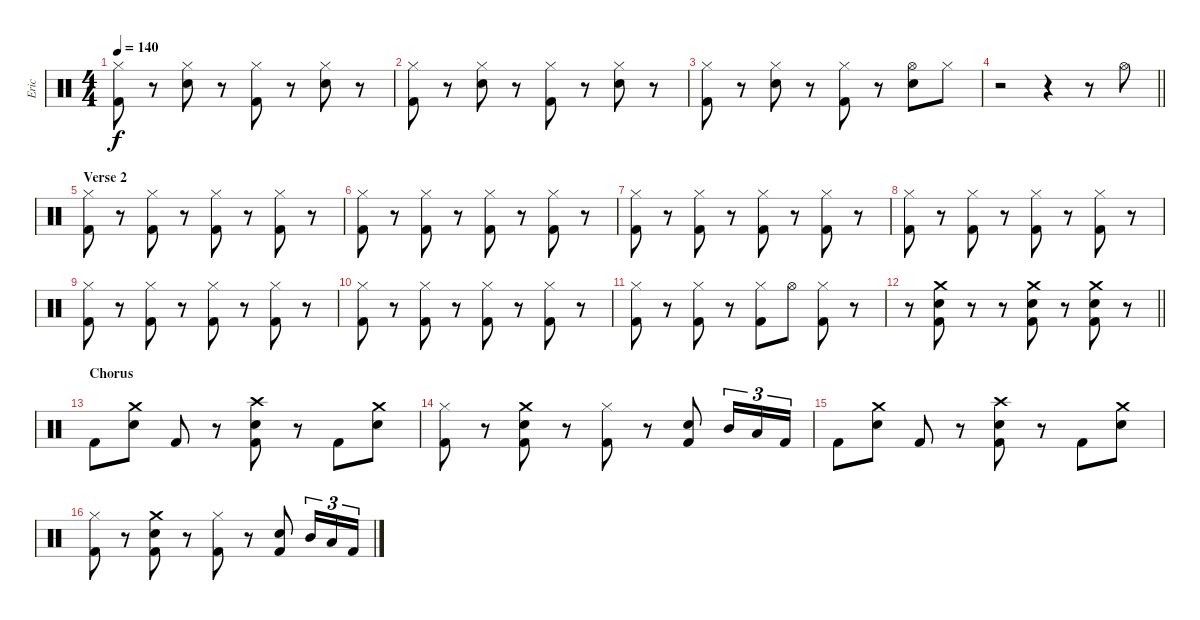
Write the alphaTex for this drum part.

\track ("Eric" "Eric") {instrument percussion}
\staff {score}
\articulation defaults
\ts (4 4)
\tempo 140
\clef neutral
\ks c
("Hi-Hat (closed)" "Kick (hit) 2").8{dy f} r.8 ("Hi-Hat (closed)" "Electric Snare (hit)").8 r.8 ("Hi-Hat (closed)" "Kick (hit) 2").8 r.8 ("Hi-Hat (closed)" "Electric Snare (hit)").8 r.8 |
("Hi-Hat (closed)" "Kick (hit) 2").8 r.8 ("Hi-Hat (closed)" "Electric Snare (hit)").8 r.8 ("Hi-Hat (closed)" "Kick (hit) 2").8 r.8 ("Hi-Hat (closed)" "Electric Snare (hit)").8 r.8 |
("Hi-Hat (closed)" "Kick (hit) 2").8 r.8 ("Hi-Hat (closed)" "Electric Snare (hit)").8 r.8 ("Hi-Hat (closed)" "Kick (hit) 2").8 r.8 ("Hi-Hat (open)" "Electric Snare (hit)").8 "Hi-Hat (closed)".8 |
\barLineRight lightlight
r.2 r.4 r.8 "Hi-Hat (open)".8 |
\section ("" "Verse 2")
("Hi-Hat (closed)" "Kick (hit) 2").8 r.8 ("Hi-Hat (closed)" "Kick (hit) 2").8 r.8 ("Hi-Hat (closed)" "Kick (hit) 2").8 r.8 ("Hi-Hat (closed)" "Kick (hit) 2").8 r.8 |
("Hi-Hat (closed)" "Kick (hit) 2").8 r.8 ("Hi-Hat (closed)" "Kick (hit) 2").8 r.8 ("Hi-Hat (closed)" "Kick (hit) 2").8 r.8 ("Hi-Hat (closed)" "Kick (hit) 2").8 r.8 |
("Hi-Hat (closed)" "Kick (hit) 2").8 r.8 ("Hi-Hat (closed)" "Kick (hit) 2").8 r.8 ("Hi-Hat (closed)" "Kick (hit) 2").8 r.8 ("Hi-Hat (closed)" "Kick (hit) 2").8 r.8 |
("Hi-Hat (closed)" "Kick (hit) 2").8 r.8 ("Hi-Hat (closed)" "Kick (hit) 2").8 r.8 ("Hi-Hat (closed)" "Kick (hit) 2").8 r.8 ("Hi-Hat (closed)" "Kick (hit) 2").8 r.8 |
("Hi-Hat (closed)" "Kick (hit) 2").8 r.8 ("Hi-Hat (closed)" "Kick (hit) 2").8 r.8 ("Hi-Hat (closed)" "Kick (hit) 2").8 r.8 ("Hi-Hat (closed)" "Kick (hit) 2").8 r.8 |
("Hi-Hat (closed)" "Kick (hit) 2").8 r.8 ("Hi-Hat (closed)" "Kick (hit) 2").8 r.8 ("Hi-Hat (closed)" "Kick (hit) 2").8 r.8 ("Hi-Hat (closed)" "Kick (hit) 2").8 r.8 |
("Hi-Hat (closed)" "Kick (hit) 2").8 r.8 ("Hi-Hat (closed)" "Kick (hit) 2").8 r.8 ("Hi-Hat (closed)" "Kick (hit) 2").8 "Hi-Hat (open)".8 ("Hi-Hat (closed)" "Kick (hit) 2").8 r.8 |
\barLineRight lightlight
r.8 ("Crash medium (hit)" "Electric Snare (hit)" "Kick (hit) 2").8 r.8 r.8 ("Crash medium (hit)" "Electric Snare (hit)" "Kick (hit) 2").8 r.8 ("Crash medium (hit)" "Electric Snare (hit)" "Kick (hit) 2").8 r.8 |
\section ("" "Chorus")
"Kick (hit) 2".8 ("Crash medium (hit)" "Electric Snare (hit)").8 "Kick (hit) 2".8 r.8 ("Crash high (hit)" "Electric Snare (hit)" "Kick (hit) 2").8 r.8 "Kick (hit) 2".8 ("Crash medium (hit)" "Electric Snare (hit)").8 |
("Hi-Hat (closed)" "Kick (hit) 2").8 r.8 ("Crash medium (hit)" "Electric Snare (hit)" "Kick (hit) 2").8 r.8 ("Hi-Hat (closed)" "Kick (hit) 2").8 r.8 ("Electric Snare (hit)" "Kick (hit) 2").8 "Mid Tom (hit)".16{tu (3 2)} "Low Tom (hit)".16{tu (3 2)} "Kick (hit) 2".16{tu (3 2)} |
"Kick (hit) 2".8 ("Crash medium (hit)" "Electric Snare (hit)").8 "Kick (hit) 2".8 r.8 ("Crash high (hit)" "Electric Snare (hit)" "Kick (hit) 2").8 r.8 "Kick (hit) 2".8 ("Crash medium (hit)" "Electric Snare (hit)").8 |
("Hi-Hat (closed)" "Kick (hit) 2").8 r.8 ("Crash medium (hit)" "Electric Snare (hit)" "Kick (hit) 2").8 r.8 ("Hi-Hat (closed)" "Kick (hit) 2").8 r.8 ("Electric Snare (hit)" "Kick (hit) 2").8 "Mid Tom (hit)".16{tu (3 2)} "Low Tom (hit)".16{tu (3 2)} "Kick (hit) 2".16{tu (3 2)}
